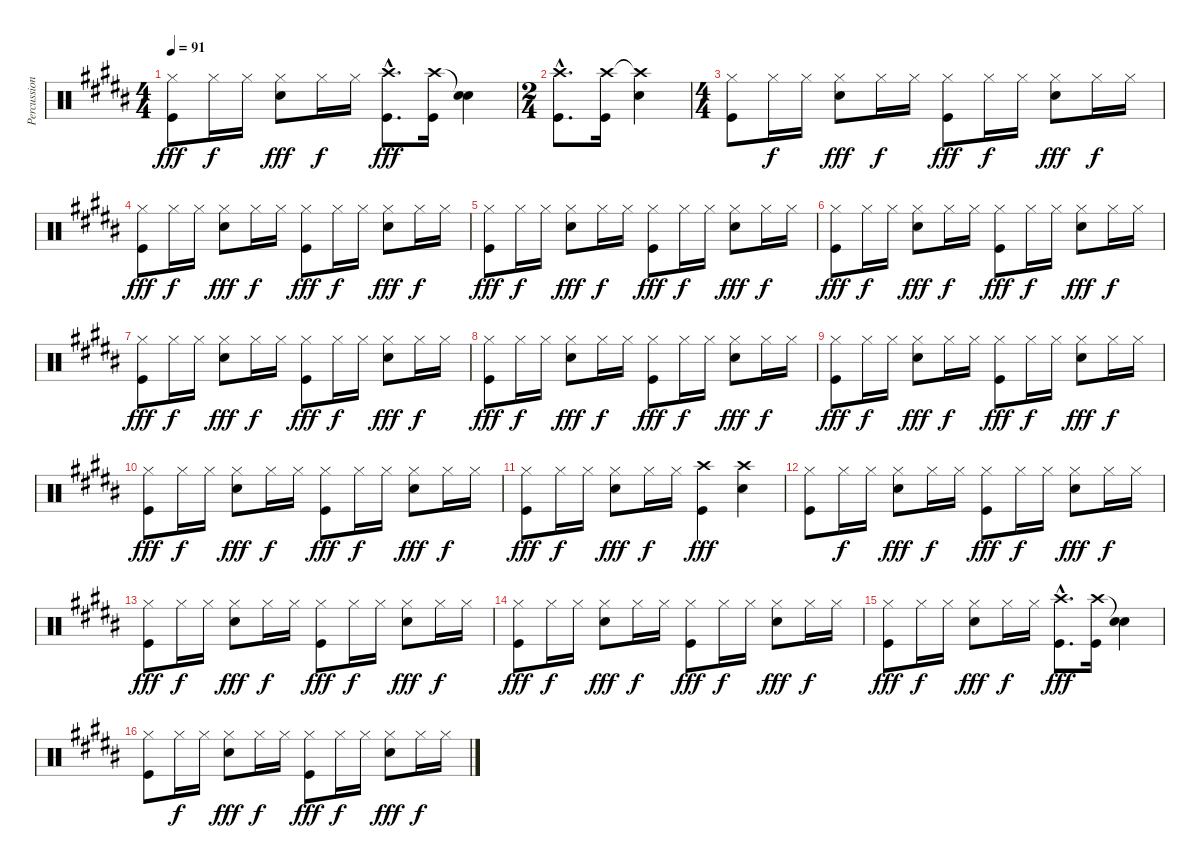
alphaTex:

\track ("Percussion" "Percussion") {instrument percussion}
\staff {score}
\articulation defaults
\ts (4 4)
\tempo 91
\clef neutral
\ks b
("Hi-Hat (closed)" "Kick (hit)").8{dy fff} "Hi-Hat (closed)".16{dy f} "Hi-Hat (closed)".16 ("Hi-Hat (closed)" "Electric Snare (hit)").8{dy fff} "Hi-Hat (closed)".16{dy f} "Hi-Hat (closed)".16 ("Crash high (hit)"{hac} "Kick (hit)"{hac}).8{d dy fff} ("Crash high (hit)" "Kick (hit)").16 ("Snare (hit)"{t} "Electric Snare (hit)").4 |
\ts (2 4)
("Crash high (hit)"{hac} "Kick (hit)"{hac}).8{d} ("Crash high (hit)" "Kick (hit)").16 ("Crash high (hit)"{t} "Electric Snare (hit)").4 |
\ts (4 4)
("Hi-Hat (closed)" "Kick (hit)").8 "Hi-Hat (closed)".16{dy f} "Hi-Hat (closed)".16 ("Hi-Hat (closed)" "Electric Snare (hit)").8{dy fff} "Hi-Hat (closed)".16{dy f} "Hi-Hat (closed)".16 ("Hi-Hat (closed)" "Kick (hit)").8{dy fff} "Hi-Hat (closed)".16{dy f} "Hi-Hat (closed)".16 ("Hi-Hat (closed)" "Electric Snare (hit)").8{dy fff} "Hi-Hat (closed)".16{dy f} "Hi-Hat (closed)".16 |
("Hi-Hat (closed)" "Kick (hit)").8{dy fff} "Hi-Hat (closed)".16{dy f} "Hi-Hat (closed)".16 ("Hi-Hat (closed)" "Electric Snare (hit)").8{dy fff} "Hi-Hat (closed)".16{dy f} "Hi-Hat (closed)".16 ("Hi-Hat (closed)" "Kick (hit)").8{dy fff} "Hi-Hat (closed)".16{dy f} "Hi-Hat (closed)".16 ("Hi-Hat (closed)" "Electric Snare (hit)").8{dy fff} "Hi-Hat (closed)".16{dy f} "Hi-Hat (closed)".16 |
("Hi-Hat (closed)" "Kick (hit)").8{dy fff} "Hi-Hat (closed)".16{dy f} "Hi-Hat (closed)".16 ("Hi-Hat (closed)" "Electric Snare (hit)").8{dy fff} "Hi-Hat (closed)".16{dy f} "Hi-Hat (closed)".16 ("Hi-Hat (closed)" "Kick (hit)").8{dy fff} "Hi-Hat (closed)".16{dy f} "Hi-Hat (closed)".16 ("Hi-Hat (closed)" "Electric Snare (hit)").8{dy fff} "Hi-Hat (closed)".16{dy f} "Hi-Hat (closed)".16 |
("Hi-Hat (closed)" "Kick (hit)").8{dy fff} "Hi-Hat (closed)".16{dy f} "Hi-Hat (closed)".16 ("Hi-Hat (closed)" "Electric Snare (hit)").8{dy fff} "Hi-Hat (closed)".16{dy f} "Hi-Hat (closed)".16 ("Hi-Hat (closed)" "Kick (hit)").8{dy fff} "Hi-Hat (closed)".16{dy f} "Hi-Hat (closed)".16 ("Hi-Hat (closed)" "Electric Snare (hit)").8{dy fff} "Hi-Hat (closed)".16{dy f} "Hi-Hat (closed)".16 |
("Hi-Hat (closed)" "Kick (hit)").8{dy fff} "Hi-Hat (closed)".16{dy f} "Hi-Hat (closed)".16 ("Hi-Hat (closed)" "Electric Snare (hit)").8{dy fff} "Hi-Hat (closed)".16{dy f} "Hi-Hat (closed)".16 ("Hi-Hat (closed)" "Kick (hit)").8{dy fff} "Hi-Hat (closed)".16{dy f} "Hi-Hat (closed)".16 ("Hi-Hat (closed)" "Electric Snare (hit)").8{dy fff} "Hi-Hat (closed)".16{dy f} "Hi-Hat (closed)".16 |
("Hi-Hat (closed)" "Kick (hit)").8{dy fff} "Hi-Hat (closed)".16{dy f} "Hi-Hat (closed)".16 ("Hi-Hat (closed)" "Electric Snare (hit)").8{dy fff} "Hi-Hat (closed)".16{dy f} "Hi-Hat (closed)".16 ("Hi-Hat (closed)" "Kick (hit)").8{dy fff} "Hi-Hat (closed)".16{dy f} "Hi-Hat (closed)".16 ("Hi-Hat (closed)" "Electric Snare (hit)").8{dy fff} "Hi-Hat (closed)".16{dy f} "Hi-Hat (closed)".16 |
("Hi-Hat (closed)" "Kick (hit)").8{dy fff} "Hi-Hat (closed)".16{dy f} "Hi-Hat (closed)".16 ("Hi-Hat (closed)" "Electric Snare (hit)").8{dy fff} "Hi-Hat (closed)".16{dy f} "Hi-Hat (closed)".16 ("Hi-Hat (closed)" "Kick (hit)").8{dy fff} "Hi-Hat (closed)".16{dy f} "Hi-Hat (closed)".16 ("Hi-Hat (closed)" "Electric Snare (hit)").8{dy fff} "Hi-Hat (closed)".16{dy f} "Hi-Hat (closed)".16 |
("Hi-Hat (closed)" "Kick (hit)").8{dy fff} "Hi-Hat (closed)".16{dy f} "Hi-Hat (closed)".16 ("Hi-Hat (closed)" "Electric Snare (hit)").8{dy fff} "Hi-Hat (closed)".16{dy f} "Hi-Hat (closed)".16 ("Hi-Hat (closed)" "Kick (hit)").8{dy fff} "Hi-Hat (closed)".16{dy f} "Hi-Hat (closed)".16 ("Hi-Hat (closed)" "Electric Snare (hit)").8{dy fff} "Hi-Hat (closed)".16{dy f} "Hi-Hat (closed)".16 |
("Hi-Hat (closed)" "Kick (hit)").8{dy fff} "Hi-Hat (closed)".16{dy f} "Hi-Hat (closed)".16 ("Hi-Hat (closed)" "Electric Snare (hit)").8{dy fff} "Hi-Hat (closed)".16{dy f} "Hi-Hat (closed)".16 ("Crash high (hit)" "Kick (hit)").4{dy fff} ("Crash high (hit)" "Electric Snare (hit)").4 |
("Hi-Hat (closed)" "Kick (hit)").8 "Hi-Hat (closed)".16{dy f} "Hi-Hat (closed)".16 ("Hi-Hat (closed)" "Electric Snare (hit)").8{dy fff} "Hi-Hat (closed)".16{dy f} "Hi-Hat (closed)".16 ("Hi-Hat (closed)" "Kick (hit)").8{dy fff} "Hi-Hat (closed)".16{dy f} "Hi-Hat (closed)".16 ("Hi-Hat (closed)" "Electric Snare (hit)").8{dy fff} "Hi-Hat (closed)".16{dy f} "Hi-Hat (closed)".16 |
("Hi-Hat (closed)" "Kick (hit)").8{dy fff} "Hi-Hat (closed)".16{dy f} "Hi-Hat (closed)".16 ("Hi-Hat (closed)" "Electric Snare (hit)").8{dy fff} "Hi-Hat (closed)".16{dy f} "Hi-Hat (closed)".16 ("Hi-Hat (closed)" "Kick (hit)").8{dy fff} "Hi-Hat (closed)".16{dy f} "Hi-Hat (closed)".16 ("Hi-Hat (closed)" "Electric Snare (hit)").8{dy fff} "Hi-Hat (closed)".16{dy f} "Hi-Hat (closed)".16 |
("Hi-Hat (closed)" "Kick (hit)").8{dy fff} "Hi-Hat (closed)".16{dy f} "Hi-Hat (closed)".16 ("Hi-Hat (closed)" "Electric Snare (hit)").8{dy fff} "Hi-Hat (closed)".16{dy f} "Hi-Hat (closed)".16 ("Hi-Hat (closed)" "Kick (hit)").8{dy fff} "Hi-Hat (closed)".16{dy f} "Hi-Hat (closed)".16 ("Hi-Hat (closed)" "Electric Snare (hit)").8{dy fff} "Hi-Hat (closed)".16{dy f} "Hi-Hat (closed)".16 |
("Hi-Hat (closed)" "Kick (hit)").8{dy fff} "Hi-Hat (closed)".16{dy f} "Hi-Hat (closed)".16 ("Hi-Hat (closed)" "Electric Snare (hit)").8{dy fff} "Hi-Hat (closed)".16{dy f} "Hi-Hat (closed)".16 ("Crash high (hit)"{hac} "Kick (hit)"{hac}).8{d dy fff} ("Crash high (hit)" "Kick (hit)").16 ("Snare (hit)"{t} "Electric Snare (hit)").4 |
("Hi-Hat (closed)" "Kick (hit)").8 "Hi-Hat (closed)".16{dy f} "Hi-Hat (closed)".16 ("Hi-Hat (closed)" "Electric Snare (hit)").8{dy fff} "Hi-Hat (closed)".16{dy f} "Hi-Hat (closed)".16 ("Hi-Hat (closed)" "Kick (hit)").8{dy fff} "Hi-Hat (closed)".16{dy f} "Hi-Hat (closed)".16 ("Hi-Hat (closed)" "Electric Snare (hit)").8{dy fff} "Hi-Hat (closed)".16{dy f} "Hi-Hat (closed)".16
